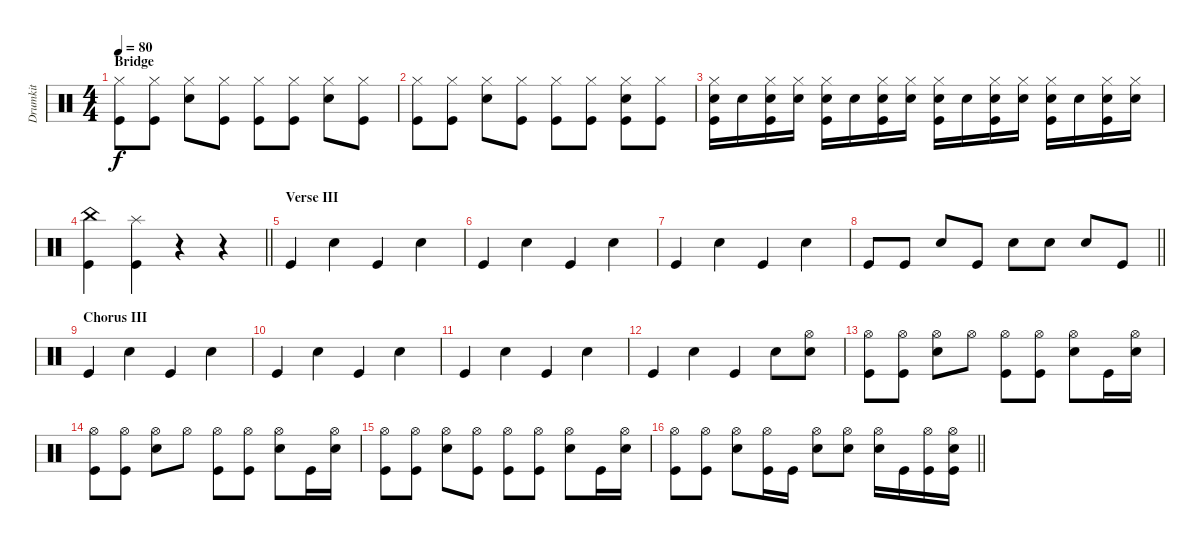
\track ("Drumkit" "Drumkit") {instrument percussion}
\staff {score}
\articulation defaults
\ts (4 4)
\section ("" "Bridge")
\tempo 80
\clef neutral
\ks c
("Hi-Hat (closed)" "Kick (hit)").8{dy f} ("Hi-Hat (closed)" "Kick (hit)").8 ("Hi-Hat (closed)" "Snare (hit) 2").8 ("Hi-Hat (closed)" "Kick (hit)").8 ("Hi-Hat (closed)" "Kick (hit)").8 ("Hi-Hat (closed)" "Kick (hit)").8 ("Hi-Hat (closed)" "Snare (hit) 2").8 ("Hi-Hat (closed)" "Kick (hit)").8 |
("Hi-Hat (closed)" "Kick (hit)").8 ("Hi-Hat (closed)" "Kick (hit)").8 ("Hi-Hat (closed)" "Snare (hit) 2").8 ("Hi-Hat (closed)" "Kick (hit)").8 ("Hi-Hat (closed)" "Kick (hit)").8 ("Hi-Hat (closed)" "Kick (hit)").8 ("Hi-Hat (closed)" "Kick (hit)" "Snare (hit) 2").8 ("Hi-Hat (closed)" "Kick (hit)").8 |
("Hi-Hat (closed)" "Kick (hit)" "Snare (hit) 2").16 "Snare (hit) 2".16 ("Hi-Hat (closed)" "Kick (hit)" "Snare (hit) 2").16 ("Hi-Hat (closed)" "Snare (hit) 2").16 ("Hi-Hat (closed)" "Kick (hit)" "Snare (hit) 2").16 "Snare (hit) 2".16 ("Hi-Hat (closed)" "Kick (hit)" "Snare (hit) 2").16 ("Hi-Hat (closed)" "Snare (hit) 2").16 ("Hi-Hat (closed)" "Kick (hit)" "Snare (hit) 2").16 "Snare (hit) 2".16 ("Hi-Hat (closed)" "Kick (hit)" "Snare (hit) 2").16 ("Hi-Hat (closed)" "Snare (hit) 2").16 ("Hi-Hat (closed)" "Kick (hit)" "Snare (hit) 2").16 "Snare (hit) 2".16 ("Hi-Hat (closed)" "Kick (hit)" "Snare (hit) 2").16 ("Hi-Hat (closed)" "Snare (hit) 2").16 |
\barLineRight lightlight
("Kick (hit)" "China (hit)").4 ("Kick (hit)" "Splash (hit)").4 r.4 r.4 |
\section ("" "Verse III")
"Kick (hit)".4 "Snare (hit) 2".4 "Kick (hit)".4 "Snare (hit) 2".4 |
"Kick (hit)".4 "Snare (hit) 2".4 "Kick (hit)".4 "Snare (hit) 2".4 |
"Kick (hit)".4 "Snare (hit) 2".4 "Kick (hit)".4 "Snare (hit) 2".4 |
\barLineRight lightlight "Kick (hit)".8 "Kick (hit)".8 "Snare (hit) 2".8 "Kick (hit)".8 "Snare (hit) 2".8 "Snare (hit) 2".8 "Snare (hit) 2".8 "Kick (hit)".8
|
\section ("" "Chorus III")
"Kick (hit)".4 "Snare (hit) 2".4 "Kick (hit)".4 "Snare (hit) 2".4 |
"Kick (hit)".4 "Snare (hit) 2".4 "Kick (hit)".4 "Snare (hit) 2".4 |
"Kick (hit)".4 "Snare (hit) 2".4 "Kick (hit)".4 "Snare (hit) 2".4 |
"Kick (hit)".4 "Snare (hit) 2".4 "Kick (hit)".4 "Snare (hit) 2".8 ("Hi-Hat (open)" "Snare (hit) 2").8 |
("Hi-Hat (open)" "Kick (hit)").8 ("Hi-Hat (open)" "Kick (hit)").8 ("Hi-Hat (open)" "Snare (hit) 2").8 "Hi-Hat (open)".8 ("Hi-Hat (open)" "Kick (hit)").8 ("Hi-Hat (open)" "Kick (hit)").8 ("Hi-Hat (open)" "Snare (hit) 2").8 "Kick (hit)".16 ("Hi-Hat (open)" "Snare (hit) 2").16 |
("Hi-Hat (open)" "Kick (hit)").8 ("Hi-Hat (open)" "Kick (hit)").8 ("Hi-Hat (open)" "Snare (hit) 2").8 "Hi-Hat (open)".8 ("Hi-Hat (open)" "Kick (hit)").8 ("Hi-Hat (open)" "Kick (hit)").8 ("Hi-Hat (open)" "Snare (hit) 2").8 "Kick (hit)".16 ("Hi-Hat (open)" "Snare (hit) 2").16 |
("Hi-Hat (open)" "Kick (hit)").8 ("Hi-Hat (open)" "Kick (hit)").8 ("Hi-Hat (open)" "Snare (hit) 2").8 ("Hi-Hat (open)" "Kick (hit)").8 ("Hi-Hat (open)" "Kick (hit)").8 ("Hi-Hat (open)" "Kick (hit)").8 ("Hi-Hat (open)" "Snare (hit) 2").8 "Kick (hit)".16 ("Hi-Hat (open)" "Snare (hit) 2").16 |
\barLineRight lightlight
("Hi-Hat (open)" "Kick (hit)").8 ("Hi-Hat (open)" "Kick (hit)").8 ("Hi-Hat (open)" "Snare (hit) 2").8 ("Hi-Hat (open)" "Kick (hit)").16 "Kick (hit)".16 ("Hi-Hat (open)" "Snare (hit) 2").8 ("Hi-Hat (open)" "Snare (hit) 2").8 ("Hi-Hat (open)" "Snare (hit) 2").16 "Kick (hit)".16 ("Hi-Hat (open)" "Kick (hit)").16 ("Hi-Hat (open)" "Snare (hit) 2" "Kick (hit)").16
